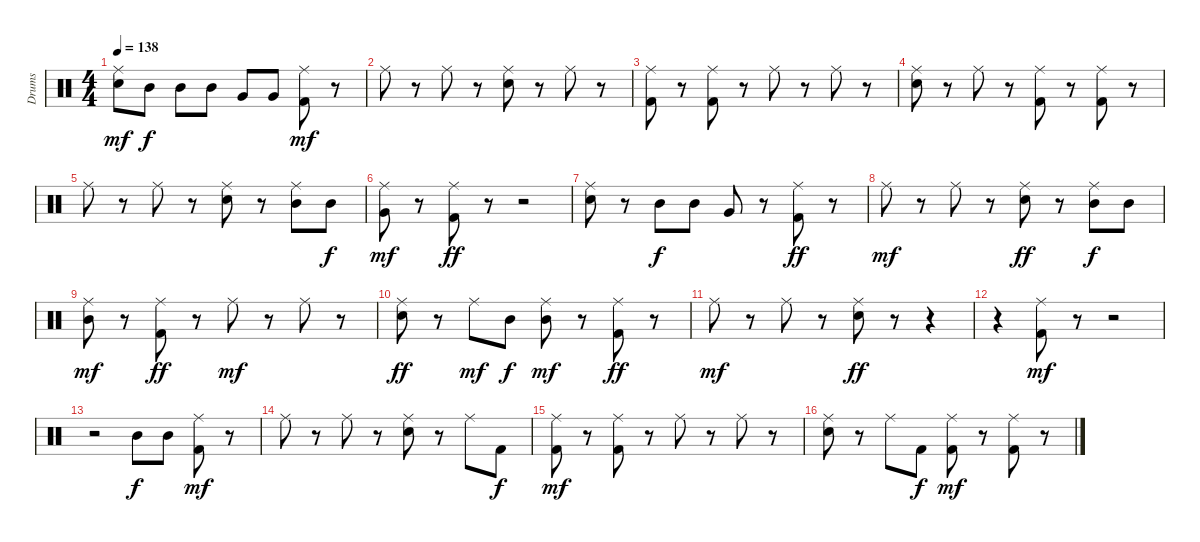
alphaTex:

\track ("Drums" "Drums") {instrument percussion}
\staff {score}
\articulation defaults
\ts (4 4)
\tempo 138
\clef neutral
\ks c
("Ride (middle)" "Snare (hit) 2").8{dy mf} "Mid Tom (hit)".8{dy f} "Mid Tom (hit)".8 "Mid Tom (hit)".8 "Very Low Tom (hit)".8 "Very Low Tom (hit)".8 ("Ride (middle)" "Kick (hit) 2").8{dy mf} r.8 |
"Ride (middle)".8 r.8 "Ride (middle)".8 r.8 ("Ride (middle)" "Snare (hit) 2").8 r.8 "Ride (middle)".8 r.8 |
("Ride (middle)" "Kick (hit) 2").8 r.8 ("Ride (middle)" "Kick (hit) 2").8 r.8 "Ride (middle)".8 r.8 "Ride (middle)".8 r.8 |
("Ride (middle)" "Snare (hit) 2").8 r.8 "Ride (middle)".8 r.8 ("Ride (middle)" "Kick (hit) 2").8 r.8 ("Ride (middle)" "Kick (hit) 2").8 r.8 |
"Ride (middle)".8 r.8 "Ride (middle)".8 r.8 ("Ride (middle)" "Snare (hit) 2").8 r.8 ("Ride (middle)" "Mid Tom (hit)").8 "Mid Tom (hit)".8{dy f} |
("Ride (middle)" "Very Low Tom (hit)").8{dy mf} r.8 ("Ride (middle)" "Kick (hit) 2").8{dy ff} r.8 r.2 |
("Ride (middle)" "Snare (hit) 2").8 r.8 "Mid Tom (hit)".8{dy f} "Mid Tom (hit)".8 "Very Low Tom (hit)".8 r.8 ("Ride (middle)" "Kick (hit) 2").8{dy ff} r.8 |
"Ride (middle)".8{dy mf} r.8 "Ride (middle)".8 r.8 ("Ride (middle)" "Snare (hit) 2").8{dy ff} r.8 ("Ride (middle)" "Mid Tom (hit)").8{dy f} "Mid Tom (hit)".8 |
("Ride (middle)" "Mid Tom (hit)").8{dy mf} r.8 ("Ride (middle)" "Kick (hit) 2").8{dy ff} r.8 "Ride (middle)".8{dy mf} r.8 "Ride (middle)".8 r.8 |
("Ride (middle)" "Snare (hit) 2").8{dy ff} r.8 "Ride (middle)".8{dy mf} "Mid Tom (hit)".8{dy f} ("Ride (middle)" "Mid Tom (hit)").8{dy mf} r.8 ("Ride (middle)" "Kick (hit) 2").8{dy ff} r.8 |
"Ride (middle)".8{dy mf} r.8 "Ride (middle)".8 r.8 ("Ride (middle)" "Snare (hit) 2").8{dy ff} r.8 r.4 |
r.4 ("Ride (middle)" "Kick (hit) 2").8{dy mf} r.8 r.2 |
r.2 "Mid Tom (hit)".8{dy f} "Mid Tom (hit)".8 ("Ride (middle)" "Kick (hit) 2").8{dy mf} r.8 |
"Ride (middle)".8 r.8 "Ride (middle)".8 r.8 ("Ride (middle)" "Snare (hit) 2").8 r.8 "Ride (middle)".8 "Kick (hit) 2".8{dy f} |
("Ride (middle)" "Kick (hit) 2").8{dy mf} r.8 ("Ride (middle)" "Kick (hit) 2").8 r.8 "Ride (middle)".8 r.8 "Ride (middle)".8 r.8 |
("Ride (middle)" "Snare (hit) 2").8 r.8 "Ride (middle)".8 "Kick (hit) 2".8{dy f} ("Ride (middle)" "Kick (hit) 2").8{dy mf} r.8 ("Ride (middle)" "Kick (hit) 2").8 r.8
